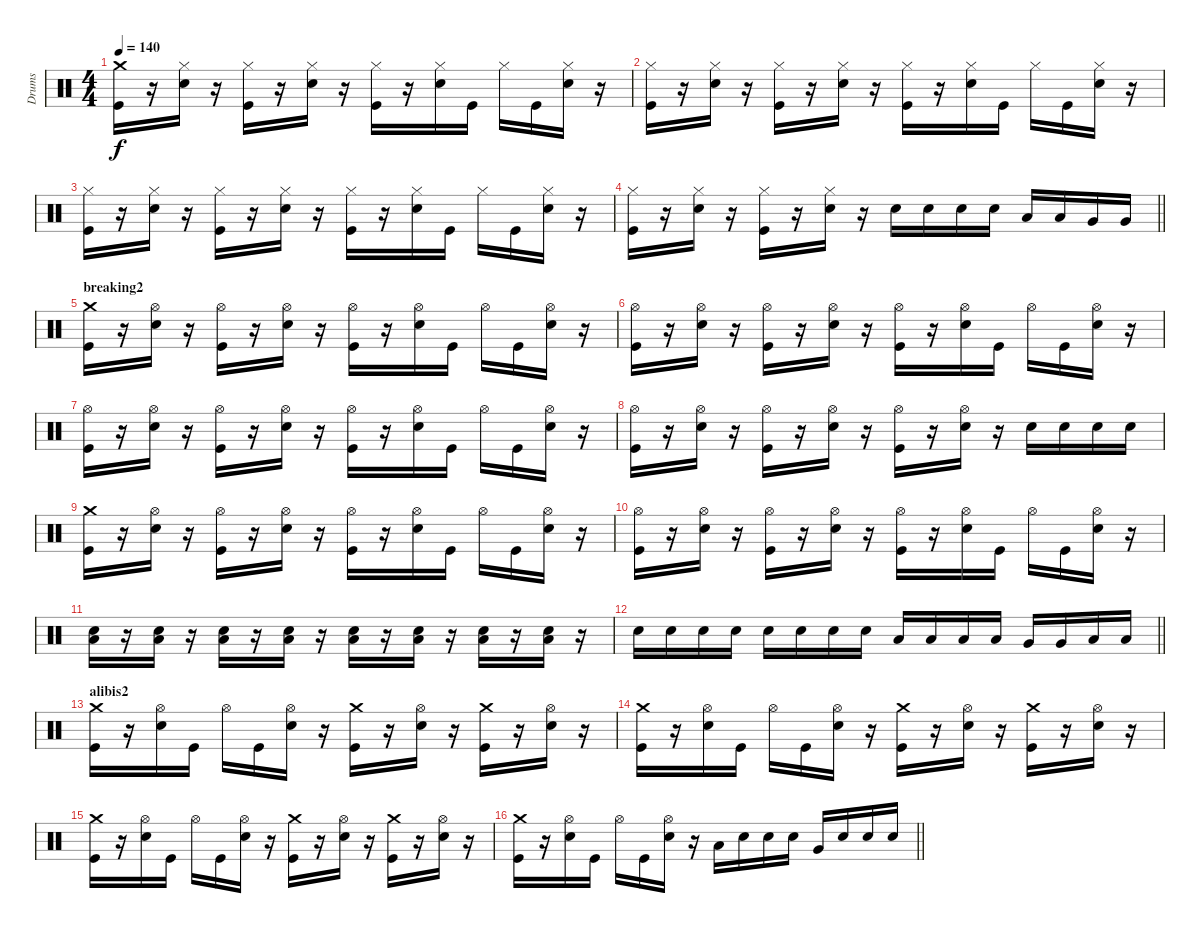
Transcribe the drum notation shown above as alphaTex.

\track ("Drums" "Drums") {instrument percussion}
\staff {score}
\articulation defaults
\ts (4 4)
\tempo 140
\clef neutral
\ks c
("Crash medium (hit)" "Kick (hit)").16{dy f} r.16 ("Hi-Hat (closed)" "Snare (hit) 2").16 r.16 ("Hi-Hat (closed)" "Kick (hit)").16 r.16 ("Hi-Hat (closed)" "Snare (hit) 2").16 r.16 ("Hi-Hat (closed)" "Kick (hit)").16 r.16 ("Hi-Hat (closed)" "Snare (hit) 2").16 "Kick (hit)".16 "Hi-Hat (closed)".16 "Kick (hit)".16 ("Hi-Hat (closed)" "Snare (hit) 2").16 r.16 |
("Hi-Hat (closed)" "Kick (hit)").16 r.16 ("Hi-Hat (closed)" "Snare (hit) 2").16 r.16 ("Hi-Hat (closed)" "Kick (hit)").16 r.16 ("Hi-Hat (closed)" "Snare (hit) 2").16 r.16 ("Hi-Hat (closed)" "Kick (hit)").16 r.16 ("Hi-Hat (closed)" "Snare (hit) 2").16 "Kick (hit)".16 "Hi-Hat (closed)".16 "Kick (hit)".16 ("Hi-Hat (closed)" "Snare (hit) 2").16 r.16 |
("Hi-Hat (closed)" "Kick (hit)").16 r.16 ("Hi-Hat (closed)" "Snare (hit) 2").16 r.16 ("Hi-Hat (closed)" "Kick (hit)").16 r.16 ("Hi-Hat (closed)" "Snare (hit) 2").16 r.16 ("Hi-Hat (closed)" "Kick (hit)").16 r.16 ("Hi-Hat (closed)" "Snare (hit) 2").16 "Kick (hit)".16 "Hi-Hat (closed)".16 "Kick (hit)".16 ("Hi-Hat (closed)" "Snare (hit) 2").16 r.16 |
\barLineRight lightlight
("Hi-Hat (closed)" "Kick (hit)").16 r.16 ("Hi-Hat (closed)" "Snare (hit) 2").16 r.16 ("Hi-Hat (closed)" "Kick (hit)").16 r.16 ("Hi-Hat (closed)" "Snare (hit) 2").16 r.16 "Snare (hit) 2".16 "Snare (hit) 2".16 "Snare (hit) 2".16 "Snare (hit) 2".16 "Low Tom (hit)".16 "Low Tom (hit)".16 "Very Low Tom (hit)".16 "Very Low Tom (hit)".16 |
\section ("" "breaking2")
("Crash medium (hit)" "Kick (hit)").16 r.16 ("Hi-Hat (open)" "Snare (hit) 2").16 r.16 ("Hi-Hat (open)" "Kick (hit)").16 r.16 ("Hi-Hat (open)" "Snare (hit) 2").16 r.16 ("Hi-Hat (open)" "Kick (hit)").16 r.16 ("Hi-Hat (open)" "Snare (hit) 2").16 "Kick (hit)".16 "Hi-Hat (open)".16 "Kick (hit)".16 ("Hi-Hat (open)" "Snare (hit) 2").16 r.16 |
("Hi-Hat (open)" "Kick (hit)").16 r.16 ("Hi-Hat (open)" "Snare (hit) 2").16 r.16 ("Hi-Hat (open)" "Kick (hit)").16 r.16 ("Hi-Hat (open)" "Snare (hit) 2").16 r.16 ("Hi-Hat (open)" "Kick (hit)").16 r.16 ("Hi-Hat (open)" "Snare (hit) 2").16 "Kick (hit)".16 "Hi-Hat (open)".16 "Kick (hit)".16 ("Hi-Hat (open)" "Snare (hit) 2").16 r.16 |
("Hi-Hat (open)" "Kick (hit)").16 r.16 ("Hi-Hat (open)" "Snare (hit) 2").16 r.16 ("Hi-Hat (open)" "Kick (hit)").16 r.16 ("Hi-Hat (open)" "Snare (hit) 2").16 r.16 ("Hi-Hat (open)" "Kick (hit)").16 r.16 ("Hi-Hat (open)" "Snare (hit) 2").16 "Kick (hit)".16 "Hi-Hat (open)".16 "Kick (hit)".16 ("Hi-Hat (open)" "Snare (hit) 2").16 r.16 |
("Hi-Hat (open)" "Kick (hit)").16 r.16 ("Hi-Hat (open)" "Snare (hit) 2").16 r.16 ("Hi-Hat (open)" "Kick (hit)").16 r.16 ("Hi-Hat (open)" "Snare (hit) 2").16 r.16 ("Hi-Hat (open)" "Kick (hit)").16 r.16 ("Hi-Hat (open)" "Snare (hit) 2").16 r.16 "Snare (hit) 2".16 "Snare (hit) 2".16 "Snare (hit) 2".16 "Snare (hit) 2".16 |
("Crash medium (hit)" "Kick (hit)").16 r.16 ("Hi-Hat (open)" "Snare (hit) 2").16 r.16 ("Hi-Hat (open)" "Kick (hit)").16 r.16 ("Hi-Hat (open)" "Snare (hit) 2").16 r.16 ("Hi-Hat (open)" "Kick (hit)").16 r.16 ("Hi-Hat (open)" "Snare (hit) 2").16 "Kick (hit)".16 "Hi-Hat (open)".16 "Kick (hit)".16 ("Hi-Hat (open)" "Snare (hit) 2").16 r.16 |
("Hi-Hat (open)" "Kick (hit)").16 r.16 ("Hi-Hat (open)" "Snare (hit) 2").16 r.16 ("Hi-Hat (open)" "Kick (hit)").16 r.16 ("Hi-Hat (open)" "Snare (hit) 2").16 r.16 ("Hi-Hat (open)" "Kick (hit)").16 r.16 ("Hi-Hat (open)" "Snare (hit) 2").16 "Kick (hit)".16 "Hi-Hat (open)".16 "Kick (hit)".16 ("Hi-Hat (open)" "Snare (hit) 2").16 r.16 |
("Low Floor Tom (hit)" "Snare (hit) 2").16 r.16 ("Low Floor Tom (hit)" "Snare (hit) 2").16 r.16 ("Low Floor Tom (hit)" "Snare (hit) 2").16 r.16 ("Low Floor Tom (hit)" "Snare (hit) 2").16 r.16 ("Low Floor Tom (hit)" "Snare (hit) 2").16 r.16 ("Low Floor Tom (hit)" "Snare (hit) 2").16 r.16 ("Low Floor Tom (hit)" "Snare (hit) 2").16 r.16 ("Low Floor Tom (hit)" "Snare (hit) 2").16 r.16 |
\barLineRight lightlight "Snare (hit) 2".16 "Snare (hit) 2".16 "Snare (hit) 2".16 "Snare (hit) 2".16 "Snare (hit) 2".16 "Snare (hit) 2".16 "Snare (hit) 2".16 "Snare (hit) 2".16 "Low Tom (hit)".16 "Low Tom (hit)".16 "Low Tom (hit)".16 "Low Tom (hit)".16 "Very Low Tom (hit)".16 "Very Low Tom (hit)".16 "Low Floor Tom (hit)".16 "Low Floor Tom (hit)".16
|
\section ("" "alibis2")
("Crash medium (hit)" "Kick (hit)").16 r.16 ("Hi-Hat (open)" "Snare (hit) 2").16 "Kick (hit)".16 "Hi-Hat (open)".16 "Kick (hit)".16 ("Hi-Hat (open)" "Snare (hit) 2").16 r.16 ("Crash medium (hit)" "Kick (hit)").16 r.16 ("Hi-Hat (open)" "Snare (hit) 2").16 r.16 ("Crash medium (hit)" "Kick (hit)").16 r.16 ("Hi-Hat (open)" "Snare (hit) 2").16 r.16 |
("Crash medium (hit)" "Kick (hit)").16 r.16 ("Hi-Hat (open)" "Snare (hit) 2").16 "Kick (hit)".16 "Hi-Hat (open)".16 "Kick (hit)".16 ("Hi-Hat (open)" "Snare (hit) 2").16 r.16 ("Crash medium (hit)" "Kick (hit)").16 r.16 ("Hi-Hat (open)" "Snare (hit) 2").16 r.16 ("Crash medium (hit)" "Kick (hit)").16 r.16 ("Hi-Hat (open)" "Snare (hit) 2").16 r.16 |
("Crash medium (hit)" "Kick (hit)").16 r.16 ("Hi-Hat (open)" "Snare (hit) 2").16 "Kick (hit)".16 "Hi-Hat (open)".16 "Kick (hit)".16 ("Hi-Hat (open)" "Snare (hit) 2").16 r.16 ("Crash medium (hit)" "Kick (hit)").16 r.16 ("Hi-Hat (open)" "Snare (hit) 2").16 r.16 ("Crash medium (hit)" "Kick (hit)").16 r.16 ("Hi-Hat (open)" "Snare (hit) 2").16 r.16 |
\barLineRight lightlight
("Crash medium (hit)" "Kick (hit)").16 r.16 ("Hi-Hat (open)" "Snare (hit) 2").16 "Kick (hit)".16 "Hi-Hat (open)".16 "Kick (hit)".16 ("Hi-Hat (open)" "Snare (hit) 2").16 r.16 "Low Tom (hit)".16 "Snare (hit) 2".16 "Snare (hit) 2".16 "Snare (hit) 2".16 "Very Low Tom (hit)".16 "Snare (hit) 2".16 "Snare (hit) 2".16 "Snare (hit) 2".16
